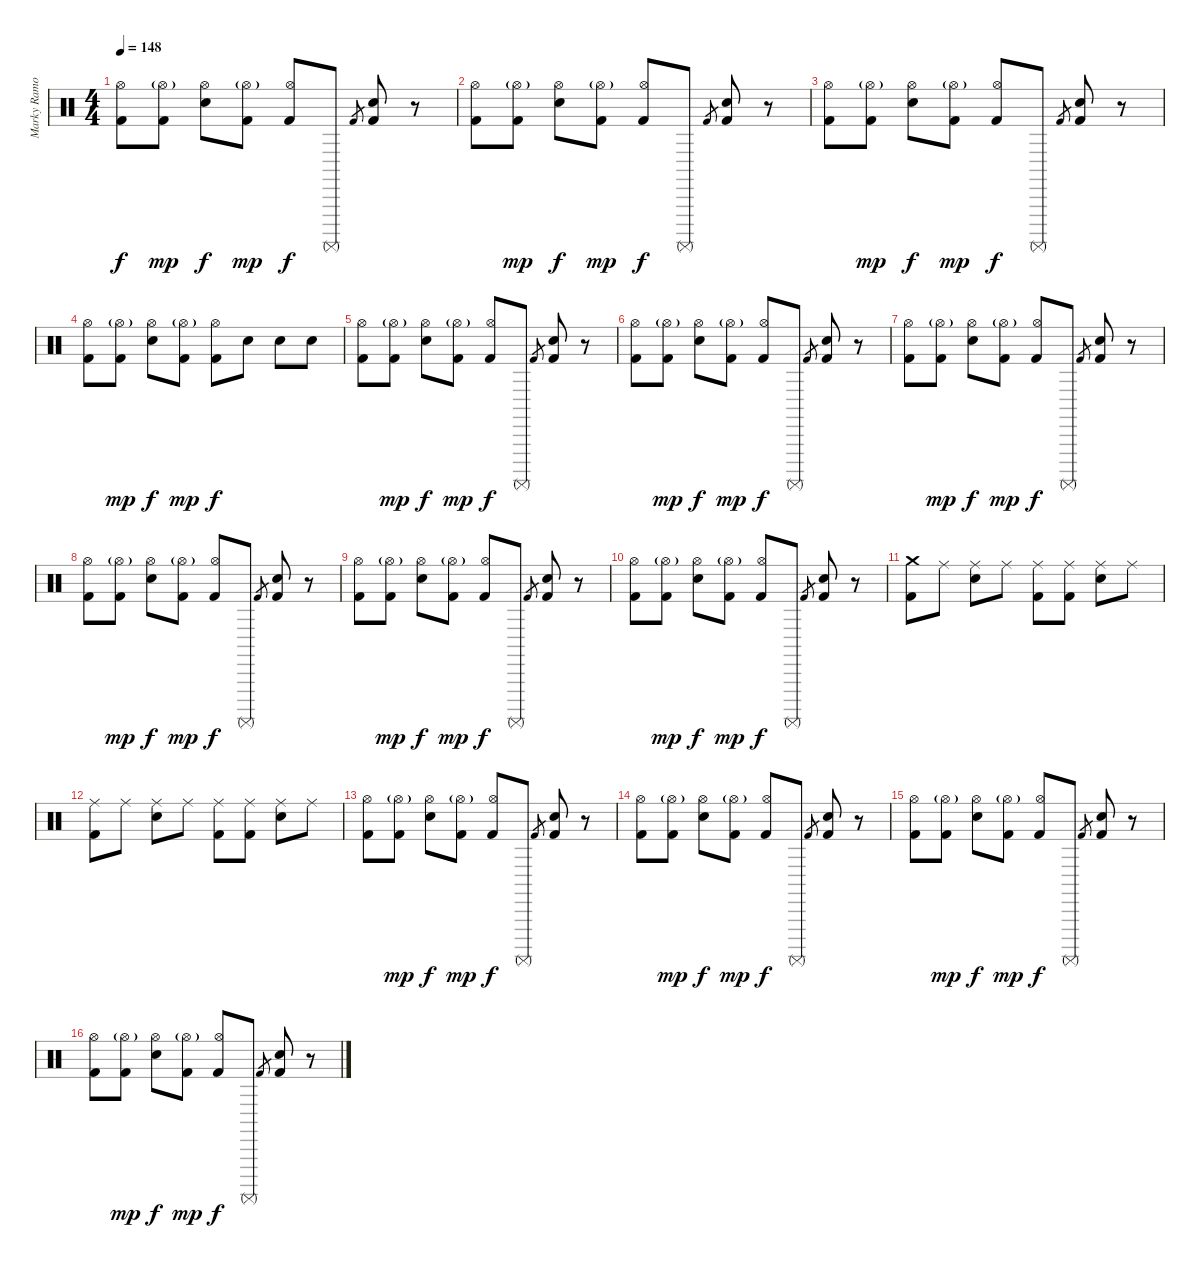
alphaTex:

\track ("Marky Ramone - Drums" "Marky Ramo") {instrument percussion}
\staff {score}
\articulation defaults
\ts (4 4)
\tempo 148
\clef neutral
\ks c
("Hi-Hat (open)" "Kick (hit) 2").8{dy f} ("Hi-Hat (open)"{g} "Kick (hit) 2").8{dy mp} ("Hi-Hat (open)" "Electric Snare (hit)").8{dy f} ("Hi-Hat (open)"{g} "Kick (hit) 2").8{dy mp} ("Hi-Hat (open)" "Kick (hit) 2").8{dy f} "Surdo (mute)".8 "Kick (hit) 2".8{gr} ("Electric Snare (hit)" "Kick (hit) 2").8{bd 480} r.8 |
("Hi-Hat (open)" "Kick (hit) 2").8 ("Hi-Hat (open)"{g} "Kick (hit) 2").8{dy mp} ("Hi-Hat (open)" "Electric Snare (hit)").8{dy f} ("Hi-Hat (open)"{g} "Kick (hit) 2").8{dy mp} ("Hi-Hat (open)" "Kick (hit) 2").8{dy f} "Surdo (mute)".8 "Kick (hit) 2".8{gr} ("Electric Snare (hit)" "Kick (hit) 2").8{bd 480} r.8 |
("Hi-Hat (open)" "Kick (hit) 2").8 ("Hi-Hat (open)"{g} "Kick (hit) 2").8{dy mp} ("Hi-Hat (open)" "Electric Snare (hit)").8{dy f} ("Hi-Hat (open)"{g} "Kick (hit) 2").8{dy mp} ("Hi-Hat (open)" "Kick (hit) 2").8{dy f} "Surdo (mute)".8 "Kick (hit) 2".8{gr} ("Electric Snare (hit)" "Kick (hit) 2").8{bd 480} r.8 |
("Hi-Hat (open)" "Kick (hit) 2").8 ("Hi-Hat (open)"{g} "Kick (hit) 2").8{dy mp} ("Hi-Hat (open)" "Electric Snare (hit)").8{dy f} ("Hi-Hat (open)"{g} "Kick (hit) 2").8{dy mp} ("Hi-Hat (open)" "Kick (hit) 2").8{dy f} "Electric Snare (hit)".8 "Electric Snare (hit)".8 "Electric Snare (hit)".8 |
("Hi-Hat (open)" "Kick (hit) 2").8 ("Hi-Hat (open)"{g} "Kick (hit) 2").8{dy mp} ("Hi-Hat (open)" "Electric Snare (hit)").8{dy f} ("Hi-Hat (open)"{g} "Kick (hit) 2").8{dy mp} ("Hi-Hat (open)" "Kick (hit) 2").8{dy f} "Surdo (mute)".8 "Kick (hit) 2".8{gr} ("Electric Snare (hit)" "Kick (hit) 2").8{bd 480} r.8 |
("Hi-Hat (open)" "Kick (hit) 2").8 ("Hi-Hat (open)"{g} "Kick (hit) 2").8{dy mp} ("Hi-Hat (open)" "Electric Snare (hit)").8{dy f} ("Hi-Hat (open)"{g} "Kick (hit) 2").8{dy mp} ("Hi-Hat (open)" "Kick (hit) 2").8{dy f} "Surdo (mute)".8 "Kick (hit) 2".8{gr} ("Electric Snare (hit)" "Kick (hit) 2").8{bd 480} r.8 |
("Hi-Hat (open)" "Kick (hit) 2").8 ("Hi-Hat (open)"{g} "Kick (hit) 2").8{dy mp} ("Hi-Hat (open)" "Electric Snare (hit)").8{dy f} ("Hi-Hat (open)"{g} "Kick (hit) 2").8{dy mp} ("Hi-Hat (open)" "Kick (hit) 2").8{dy f} "Surdo (mute)".8 "Kick (hit) 2".8{gr} ("Electric Snare (hit)" "Kick (hit) 2").8{bd 480} r.8 |
("Hi-Hat (open)" "Kick (hit) 2").8 ("Hi-Hat (open)"{g} "Kick (hit) 2").8{dy mp} ("Hi-Hat (open)" "Electric Snare (hit)").8{dy f} ("Hi-Hat (open)"{g} "Kick (hit) 2").8{dy mp} ("Hi-Hat (open)" "Kick (hit) 2").8{dy f} "Surdo (mute)".8 "Kick (hit) 2".8{gr} ("Electric Snare (hit)" "Kick (hit) 2").8{bd 480} r.8 |
("Hi-Hat (open)" "Kick (hit) 2").8 ("Hi-Hat (open)"{g} "Kick (hit) 2").8{dy mp} ("Hi-Hat (open)" "Electric Snare (hit)").8{dy f} ("Hi-Hat (open)"{g} "Kick (hit) 2").8{dy mp} ("Hi-Hat (open)" "Kick (hit) 2").8{dy f} "Surdo (mute)".8 "Kick (hit) 2".8{gr} ("Electric Snare (hit)" "Kick (hit) 2").8{bd 480} r.8 |
("Hi-Hat (open)" "Kick (hit) 2").8 ("Hi-Hat (open)"{g} "Kick (hit) 2").8{dy mp} ("Hi-Hat (open)" "Electric Snare (hit)").8{dy f} ("Hi-Hat (open)"{g} "Kick (hit) 2").8{dy mp} ("Hi-Hat (open)" "Kick (hit) 2").8{dy f} "Surdo (mute)".8 "Kick (hit) 2".8{gr} ("Electric Snare (hit)" "Kick (hit) 2").8{bd 480} r.8 |
("Crash medium (hit)" "Kick (hit) 2").8 "Ride (middle)".8 ("Ride (middle)" "Electric Snare (hit)").8 "Ride (middle)".8 ("Ride (middle)" "Kick (hit) 2").8 ("Ride (middle)" "Kick (hit) 2").8 ("Ride (middle)" "Electric Snare (hit)").8 "Ride (middle)".8 |
("Ride (middle)" "Kick (hit) 2").8 "Ride (middle)".8 ("Ride (middle)" "Electric Snare (hit)").8 "Ride (middle)".8 ("Ride (middle)" "Kick (hit) 2").8 ("Ride (middle)" "Kick (hit) 2").8 ("Ride (middle)" "Electric Snare (hit)").8 "Ride (middle)".8 |
("Hi-Hat (open)" "Kick (hit) 2").8 ("Hi-Hat (open)"{g} "Kick (hit) 2").8{dy mp} ("Hi-Hat (open)" "Electric Snare (hit)").8{dy f} ("Hi-Hat (open)"{g} "Kick (hit) 2").8{dy mp} ("Hi-Hat (open)" "Kick (hit) 2").8{dy f} "Surdo (mute)".8 "Kick (hit) 2".8{gr} ("Electric Snare (hit)" "Kick (hit) 2").8{bd 480} r.8 |
("Hi-Hat (open)" "Kick (hit) 2").8 ("Hi-Hat (open)"{g} "Kick (hit) 2").8{dy mp} ("Hi-Hat (open)" "Electric Snare (hit)").8{dy f} ("Hi-Hat (open)"{g} "Kick (hit) 2").8{dy mp} ("Hi-Hat (open)" "Kick (hit) 2").8{dy f} "Surdo (mute)".8 "Kick (hit) 2".8{gr} ("Electric Snare (hit)" "Kick (hit) 2").8{bd 480} r.8 |
("Hi-Hat (open)" "Kick (hit) 2").8 ("Hi-Hat (open)"{g} "Kick (hit) 2").8{dy mp} ("Hi-Hat (open)" "Electric Snare (hit)").8{dy f} ("Hi-Hat (open)"{g} "Kick (hit) 2").8{dy mp} ("Hi-Hat (open)" "Kick (hit) 2").8{dy f} "Surdo (mute)".8 "Kick (hit) 2".8{gr} ("Electric Snare (hit)" "Kick (hit) 2").8{bd 480} r.8 |
("Hi-Hat (open)" "Kick (hit) 2").8 ("Hi-Hat (open)"{g} "Kick (hit) 2").8{dy mp} ("Hi-Hat (open)" "Electric Snare (hit)").8{dy f} ("Hi-Hat (open)"{g} "Kick (hit) 2").8{dy mp} ("Hi-Hat (open)" "Kick (hit) 2").8{dy f} "Surdo (mute)".8 "Kick (hit) 2".8{gr} ("Electric Snare (hit)" "Kick (hit) 2").8{bd 480} r.8
